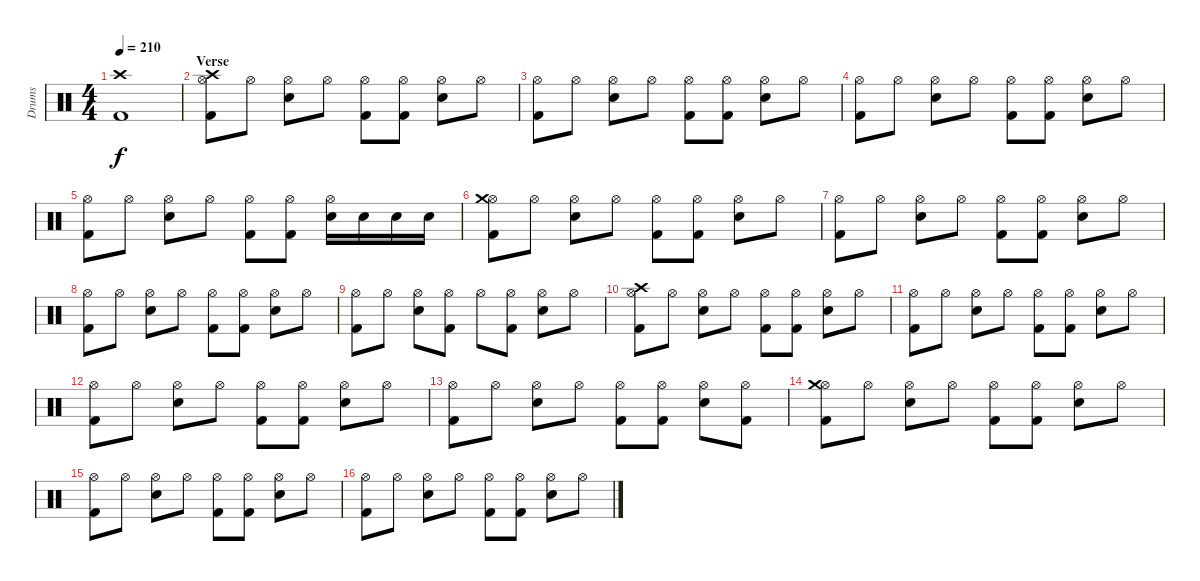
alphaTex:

\track ("Drums" "Drums") {instrument percussion}
\staff {score}
\articulation defaults
\ts (4 4)
\tempo 210
\clef neutral
\ks c
("Crash high (hit)" "Kick (hit) 2").1{dy f} |
\section ("" "Verse")
("Hi-Hat (open)" "Crash high (hit)" "Kick (hit) 2").8 "Hi-Hat (open)".8 ("Hi-Hat (open)" "Electric Snare (hit)").8 "Hi-Hat (open)".8 ("Hi-Hat (open)" "Kick (hit) 2").8 ("Hi-Hat (open)" "Kick (hit) 2").8 ("Hi-Hat (open)" "Electric Snare (hit)").8 "Hi-Hat (open)".8 |
("Hi-Hat (open)" "Kick (hit) 2").8 "Hi-Hat (open)".8 ("Hi-Hat (open)" "Electric Snare (hit)").8 "Hi-Hat (open)".8 ("Hi-Hat (open)" "Kick (hit) 2").8 ("Hi-Hat (open)" "Kick (hit) 2").8 ("Hi-Hat (open)" "Electric Snare (hit)").8 "Hi-Hat (open)".8 |
("Hi-Hat (open)" "Kick (hit) 2").8 "Hi-Hat (open)".8 ("Hi-Hat (open)" "Electric Snare (hit)").8 "Hi-Hat (open)".8 ("Hi-Hat (open)" "Kick (hit) 2").8 ("Hi-Hat (open)" "Kick (hit) 2").8 ("Hi-Hat (open)" "Electric Snare (hit)").8 "Hi-Hat (open)".8 |
("Hi-Hat (open)" "Kick (hit) 2").8 "Hi-Hat (open)".8 ("Hi-Hat (open)" "Electric Snare (hit)").8 "Hi-Hat (open)".8 ("Hi-Hat (open)" "Kick (hit) 2").8 ("Hi-Hat (open)" "Kick (hit) 2").8 ("Hi-Hat (open)" "Electric Snare (hit)").16 "Electric Snare (hit)".16 "Electric Snare (hit)".16 "Electric Snare (hit)".16 |
("Hi-Hat (open)" "Crash medium (hit)" "Kick (hit) 2").8 "Hi-Hat (open)".8 ("Hi-Hat (open)" "Electric Snare (hit)").8 "Hi-Hat (open)".8 ("Hi-Hat (open)" "Kick (hit) 2").8 ("Hi-Hat (open)" "Kick (hit) 2").8 ("Hi-Hat (open)" "Electric Snare (hit)").8 "Hi-Hat (open)".8 |
("Hi-Hat (open)" "Kick (hit) 2").8 "Hi-Hat (open)".8 ("Hi-Hat (open)" "Electric Snare (hit)").8 "Hi-Hat (open)".8 ("Hi-Hat (open)" "Kick (hit) 2").8 ("Hi-Hat (open)" "Kick (hit) 2").8 ("Hi-Hat (open)" "Electric Snare (hit)").8 "Hi-Hat (open)".8 |
("Hi-Hat (open)" "Kick (hit) 2").8 "Hi-Hat (open)".8 ("Hi-Hat (open)" "Electric Snare (hit)").8 "Hi-Hat (open)".8 ("Hi-Hat (open)" "Kick (hit) 2").8 ("Hi-Hat (open)" "Kick (hit) 2").8 ("Hi-Hat (open)" "Electric Snare (hit)").8 "Hi-Hat (open)".8 |
("Hi-Hat (open)" "Kick (hit) 2").8 "Hi-Hat (open)".8 ("Hi-Hat (open)" "Electric Snare (hit)").8 ("Hi-Hat (open)" "Kick (hit) 2").8 "Hi-Hat (open)".8 ("Hi-Hat (open)" "Kick (hit) 2").8 ("Hi-Hat (open)" "Electric Snare (hit)").8 "Hi-Hat (open)".8 |
("Hi-Hat (open)" "Crash high (hit)" "Kick (hit) 2").8 "Hi-Hat (open)".8 ("Hi-Hat (open)" "Electric Snare (hit)").8 "Hi-Hat (open)".8 ("Hi-Hat (open)" "Kick (hit) 2").8 ("Hi-Hat (open)" "Kick (hit) 2").8 ("Hi-Hat (open)" "Electric Snare (hit)").8 "Hi-Hat (open)".8 |
("Hi-Hat (open)" "Kick (hit) 2").8 "Hi-Hat (open)".8 ("Hi-Hat (open)" "Electric Snare (hit)").8 "Hi-Hat (open)".8 ("Hi-Hat (open)" "Kick (hit) 2").8 ("Hi-Hat (open)" "Kick (hit) 2").8 ("Hi-Hat (open)" "Electric Snare (hit)").8 "Hi-Hat (open)".8 |
("Hi-Hat (open)" "Kick (hit) 2").8 "Hi-Hat (open)".8 ("Hi-Hat (open)" "Electric Snare (hit)").8 "Hi-Hat (open)".8 ("Hi-Hat (open)" "Kick (hit) 2").8 ("Hi-Hat (open)" "Kick (hit) 2").8 ("Hi-Hat (open)" "Electric Snare (hit)").8 "Hi-Hat (open)".8 |
("Hi-Hat (open)" "Kick (hit) 2").8 "Hi-Hat (open)".8 ("Hi-Hat (open)" "Electric Snare (hit)").8 "Hi-Hat (open)".8 ("Hi-Hat (open)" "Kick (hit) 2").8 ("Hi-Hat (open)" "Kick (hit) 2").8 ("Hi-Hat (open)" "Electric Snare (hit)").8 ("Hi-Hat (open)" "Kick (hit) 2").8 |
("Hi-Hat (open)" "Crash medium (hit)" "Kick (hit) 2").8 "Hi-Hat (open)".8 ("Hi-Hat (open)" "Electric Snare (hit)").8 "Hi-Hat (open)".8 ("Hi-Hat (open)" "Kick (hit) 2").8 ("Hi-Hat (open)" "Kick (hit) 2").8 ("Hi-Hat (open)" "Electric Snare (hit)").8 "Hi-Hat (open)".8 |
("Hi-Hat (open)" "Kick (hit) 2").8 "Hi-Hat (open)".8 ("Hi-Hat (open)" "Electric Snare (hit)").8 "Hi-Hat (open)".8 ("Hi-Hat (open)" "Kick (hit) 2").8 ("Hi-Hat (open)" "Kick (hit) 2").8 ("Hi-Hat (open)" "Electric Snare (hit)").8 "Hi-Hat (open)".8 |
("Hi-Hat (open)" "Kick (hit) 2").8 "Hi-Hat (open)".8 ("Hi-Hat (open)" "Electric Snare (hit)").8 "Hi-Hat (open)".8 ("Hi-Hat (open)" "Kick (hit) 2").8 ("Hi-Hat (open)" "Kick (hit) 2").8 ("Hi-Hat (open)" "Electric Snare (hit)").8 "Hi-Hat (open)".8
